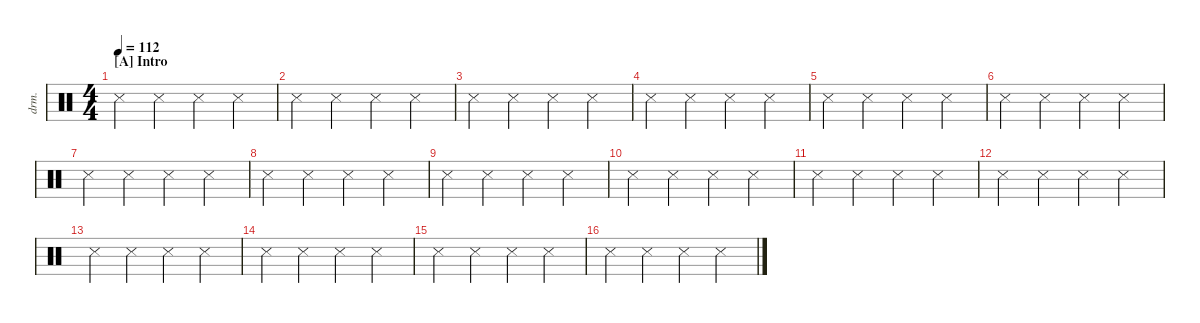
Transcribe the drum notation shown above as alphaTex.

\defaultSystemsLayout 4
\hideDynamics
\bracketExtendMode nobrackets
\otherSystemsTrackNameOrientation horizontal
\track ("Drumkit" "drm.") {instrument percussion}
\staff {score}
\articulation defaults
\ts (4 4)
\section ("A" "Intro")
\tempo 112
\clef neutral
\ks c "Metronome (hit)".4{dy mf beam Down} "Metronome (hit)".4{beam Down} "Metronome (hit)".4{beam Down} "Metronome (hit)".4{beam Down}
|
"Metronome (hit)".4{beam Down} "Metronome (hit)".4{beam Down} "Metronome (hit)".4{beam Down} "Metronome (hit)".4{beam Down} |
"Metronome (hit)".4{beam Down} "Metronome (hit)".4{beam Down} "Metronome (hit)".4{beam Down} "Metronome (hit)".4{beam Down} |
"Metronome (hit)".4{beam Down} "Metronome (hit)".4{beam Down} "Metronome (hit)".4{beam Down} "Metronome (hit)".4{beam Down} |
"Metronome (hit)".4{beam Down} "Metronome (hit)".4{beam Down} "Metronome (hit)".4{beam Down} "Metronome (hit)".4{beam Down} |
"Metronome (hit)".4{beam Down} "Metronome (hit)".4{beam Down} "Metronome (hit)".4{beam Down} "Metronome (hit)".4{beam Down} |
"Metronome (hit)".4{beam Down} "Metronome (hit)".4{beam Down} "Metronome (hit)".4{beam Down} "Metronome (hit)".4{beam Down} |
"Metronome (hit)".4{beam Down} "Metronome (hit)".4{beam Down} "Metronome (hit)".4{beam Down} "Metronome (hit)".4{beam Down} |
"Metronome (hit)".4{beam Down} "Metronome (hit)".4{beam Down} "Metronome (hit)".4{beam Down} "Metronome (hit)".4{beam Down} |
"Metronome (hit)".4{beam Down} "Metronome (hit)".4{beam Down} "Metronome (hit)".4{beam Down} "Metronome (hit)".4{beam Down} |
"Metronome (hit)".4{beam Down} "Metronome (hit)".4{beam Down} "Metronome (hit)".4{beam Down} "Metronome (hit)".4{beam Down} |
"Metronome (hit)".4{beam Down} "Metronome (hit)".4{beam Down} "Metronome (hit)".4{beam Down} "Metronome (hit)".4{beam Down} |
"Metronome (hit)".4{beam Down} "Metronome (hit)".4{beam Down} "Metronome (hit)".4{beam Down} "Metronome (hit)".4{beam Down} |
"Metronome (hit)".4{beam Down} "Metronome (hit)".4{beam Down} "Metronome (hit)".4{beam Down} "Metronome (hit)".4{beam Down} |
"Metronome (hit)".4{beam Down} "Metronome (hit)".4{beam Down} "Metronome (hit)".4{beam Down} "Metronome (hit)".4{beam Down} |
"Metronome (hit)".4{beam Down} "Metronome (hit)".4{beam Down} "Metronome (hit)".4{beam Down} "Metronome (hit)".4{beam Down}
